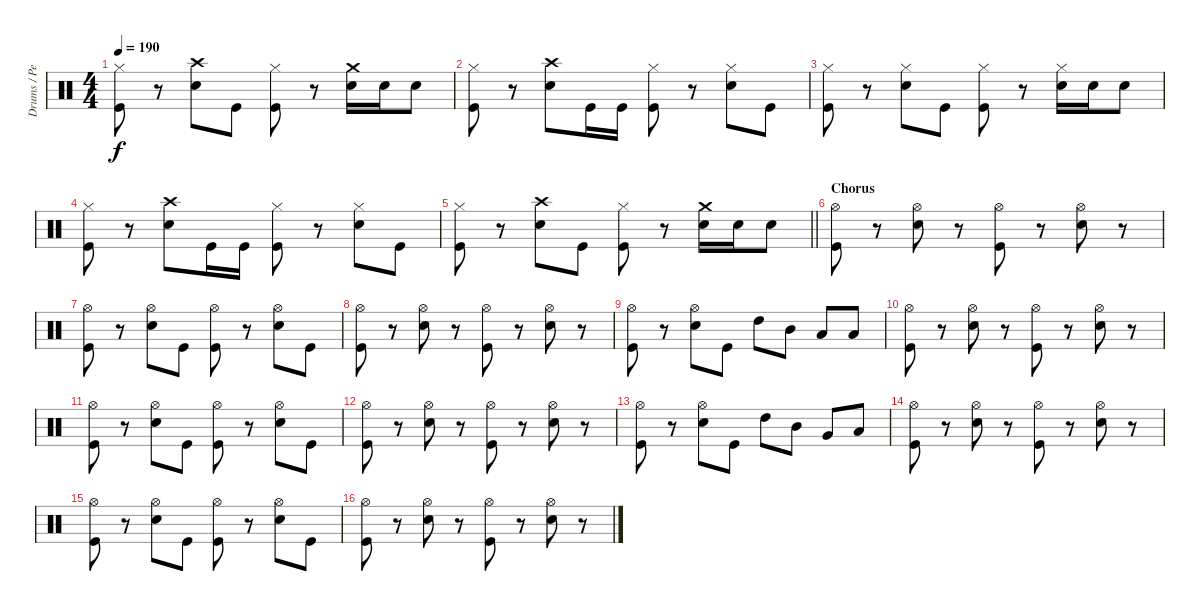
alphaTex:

\track ("Drums / Percussion" "Drums / Pe") {instrument percussion}
\staff {score}
\articulation defaults
\ts (4 4)
\tempo 190
\clef neutral
\ks c
("Hi-Hat (closed)" "Kick (hit)").8{dy f} r.8 ("Crash high (hit)" "Electric Snare (hit)").8 "Kick (hit)".8 ("Hi-Hat (closed)" "Kick (hit)").8 r.8 ("Crash medium (hit)" "Electric Snare (hit)").16 "Electric Snare (hit)".16 "Electric Snare (hit)".8 |
("Hi-Hat (closed)" "Kick (hit)").8 r.8 ("Crash high (hit)" "Electric Snare (hit)").8 "Kick (hit)".16 "Kick (hit)".16 ("Hi-Hat (closed)" "Kick (hit)").8 r.8 ("Hi-Hat (closed)" "Electric Snare (hit)").8 "Kick (hit)".8 |
("Hi-Hat (closed)" "Kick (hit)").8 r.8 ("Hi-Hat (closed)" "Electric Snare (hit)").8 "Kick (hit)".8 ("Hi-Hat (closed)" "Kick (hit)").8 r.8 ("Hi-Hat (closed)" "Electric Snare (hit)").16 "Electric Snare (hit)".16 "Electric Snare (hit)".8 |
("Hi-Hat (closed)" "Kick (hit)").8 r.8 ("Crash high (hit)" "Electric Snare (hit)").8 "Kick (hit)".16 "Kick (hit)".16 ("Hi-Hat (closed)" "Kick (hit)").8 r.8 ("Hi-Hat (closed)" "Electric Snare (hit)").8 "Kick (hit)".8 |
\barLineRight lightlight
("Hi-Hat (closed)" "Kick (hit)").8 r.8 ("Crash high (hit)" "Electric Snare (hit)").8 "Kick (hit)".8 ("Hi-Hat (closed)" "Kick (hit)").8 r.8 ("Crash medium (hit)" "Electric Snare (hit)").16 "Electric Snare (hit)".16 "Electric Snare (hit)".8 |
\section ("" "Chorus")
("Hi-Hat (open)" "Kick (hit)").8 r.8 ("Hi-Hat (open)" "Electric Snare (hit)").8 r.8 ("Hi-Hat (open)" "Kick (hit)").8 r.8 ("Hi-Hat (open)" "Electric Snare (hit)").8 r.8 |
("Hi-Hat (open)" "Kick (hit)").8 r.8 ("Hi-Hat (open)" "Electric Snare (hit)").8 "Kick (hit)".8 ("Hi-Hat (open)" "Kick (hit)").8 r.8 ("Hi-Hat (open)" "Electric Snare (hit)").8 "Kick (hit)".8 |
("Hi-Hat (open)" "Kick (hit)").8 r.8 ("Hi-Hat (open)" "Electric Snare (hit)").8 r.8 ("Hi-Hat (open)" "Kick (hit)").8 r.8 ("Hi-Hat (open)" "Electric Snare (hit)").8 r.8 |
("Hi-Hat (open)" "Kick (hit)").8 r.8 ("Hi-Hat (open)" "Electric Snare (hit)").8 "Kick (hit)".8 "High Tom (hit)".8 "Mid Tom (hit)".8 "Low Tom (hit)".8 "Low Tom (hit)".8 |
("Hi-Hat (open)" "Kick (hit)").8 r.8 ("Hi-Hat (open)" "Electric Snare (hit)").8 r.8 ("Hi-Hat (open)" "Kick (hit)").8 r.8 ("Hi-Hat (open)" "Electric Snare (hit)").8 r.8 |
("Hi-Hat (open)" "Kick (hit)").8 r.8 ("Hi-Hat (open)" "Electric Snare (hit)").8 "Kick (hit)".8 ("Hi-Hat (open)" "Kick (hit)").8 r.8 ("Hi-Hat (open)" "Electric Snare (hit)").8 "Kick (hit)".8 |
("Hi-Hat (open)" "Kick (hit)").8 r.8 ("Hi-Hat (open)" "Electric Snare (hit)").8 r.8 ("Hi-Hat (open)" "Kick (hit)").8 r.8 ("Hi-Hat (open)" "Electric Snare (hit)").8 r.8 |
("Hi-Hat (open)" "Kick (hit)").8 r.8 ("Hi-Hat (open)" "Electric Snare (hit)").8 "Kick (hit)".8 "High Tom (hit)".8 "Mid Tom (hit)".8 "Very Low Tom (hit)".8 "Low Floor Tom (hit)".8 |
("Hi-Hat (open)" "Kick (hit)").8 r.8 ("Hi-Hat (open)" "Electric Snare (hit)").8 r.8 ("Hi-Hat (open)" "Kick (hit)").8 r.8 ("Hi-Hat (open)" "Electric Snare (hit)").8 r.8 |
("Hi-Hat (open)" "Kick (hit)").8 r.8 ("Hi-Hat (open)" "Electric Snare (hit)").8 "Kick (hit)".8 ("Hi-Hat (open)" "Kick (hit)").8 r.8 ("Hi-Hat (open)" "Electric Snare (hit)").8 "Kick (hit)".8 |
("Hi-Hat (open)" "Kick (hit)").8 r.8 ("Hi-Hat (open)" "Electric Snare (hit)").8 r.8 ("Hi-Hat (open)" "Kick (hit)").8 r.8 ("Hi-Hat (open)" "Electric Snare (hit)").8 r.8
